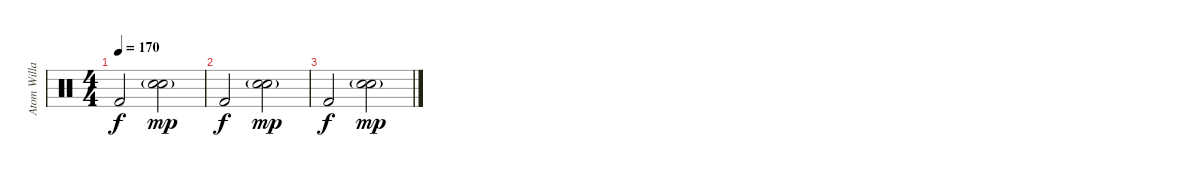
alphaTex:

\track ("Atom Willard" "Atom Willa") {instrument percussion}
\staff {score}
\articulation defaults
\ts (4 4)
\tempo 170
\clef neutral
\ks c "Kick (hit) 2".2{dy f volume 4}
("Electric Snare (hit)"{g} "Snare (hit) 2"{g}).2{dy mp} |
"Kick (hit) 2".2{dy f volume 1} ("Electric Snare (hit)"{g} "Snare (hit) 2"{g}).2{dy mp} |
"Kick (hit) 2".2{dy f volume 1} ("Electric Snare (hit)"{g} "Snare (hit) 2"{g}).2{dy mp}
